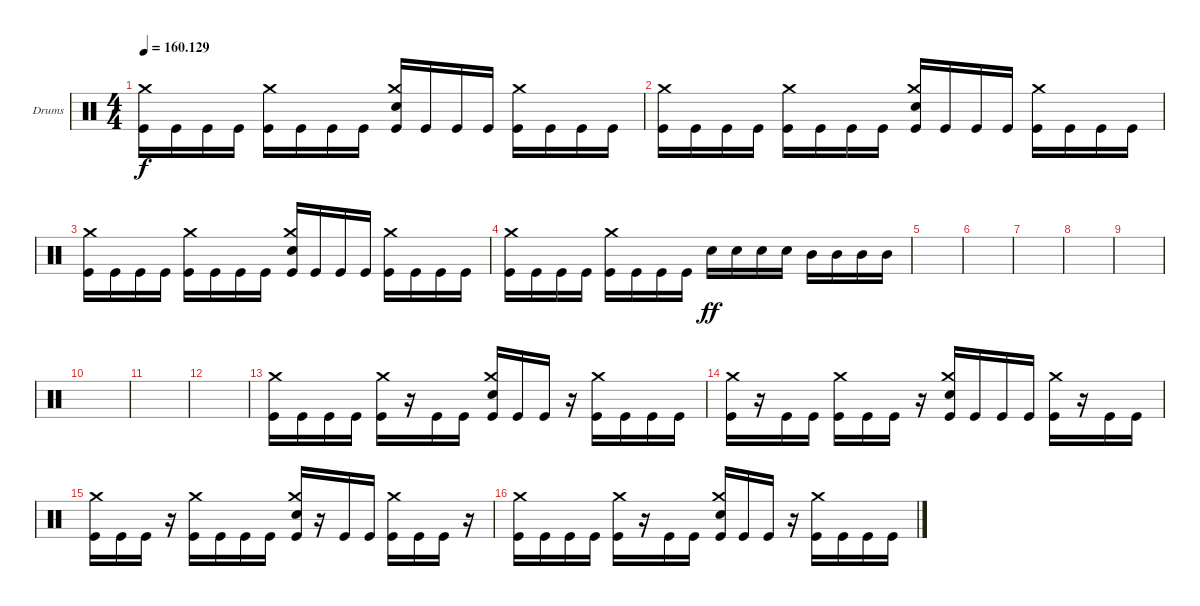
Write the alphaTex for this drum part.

\bracketExtendMode groupsimilarinstruments
\firstSystemTrackNameOrientation horizontal
\otherSystemsTrackNameOrientation horizontal
\track ("Drumkit" "Drums") {instrument percussion}
\staff {score}
\articulation defaults
\ts (4 4)
\tempo
160.129
\accidentals auto
\clef neutral
\ottava regular
\simile none
\ks c
("Kick (hit)" "Crash medium (hit)").16{dy f} "Kick (hit)".16 "Kick (hit)".16 "Kick (hit)".16 ("Kick (hit)" "Crash medium (hit)").16 "Kick (hit)".16 "Kick (hit)".16 "Kick (hit)".16 ("Kick (hit)" "Crash medium (hit)" "Snare (hit) 2").16 "Kick (hit)".16 "Kick (hit)".16 "Kick (hit)".16 ("Kick (hit)" "Crash medium (hit)").16 "Kick (hit)".16 "Kick (hit)".16 "Kick (hit)".16 |
("Kick (hit)" "Crash medium (hit)").16 "Kick (hit)".16 "Kick (hit)".16 "Kick (hit)".16 ("Kick (hit)" "Crash medium (hit)").16 "Kick (hit)".16 "Kick (hit)".16 "Kick (hit)".16 ("Kick (hit)" "Crash medium (hit)" "Snare (hit) 2").16 "Kick (hit)".16 "Kick (hit)".16 "Kick (hit)".16 ("Kick (hit)" "Crash medium (hit)").16 "Kick (hit)".16 "Kick (hit)".16 "Kick (hit)".16 |
("Kick (hit)" "Crash medium (hit)").16 "Kick (hit)".16 "Kick (hit)".16 "Kick (hit)".16 ("Kick (hit)" "Crash medium (hit)").16 "Kick (hit)".16 "Kick (hit)".16 "Kick (hit)".16 ("Kick (hit)" "Crash medium (hit)" "Snare (hit) 2").16 "Kick (hit)".16 "Kick (hit)".16 "Kick (hit)".16 ("Kick (hit)" "Crash medium (hit)").16 "Kick (hit)".16 "Kick (hit)".16 "Kick (hit)".16 |
("Kick (hit)" "Crash medium (hit)").16 "Kick (hit)".16 "Kick (hit)".16 "Kick (hit)".16 ("Kick (hit)" "Crash medium (hit)").16 "Kick (hit)".16 "Kick (hit)".16 "Kick (hit)".16 "Snare (hit) 2".16{dy ff} "Snare (hit) 2".16 "Snare (hit) 2".16 "Snare (hit) 2".16 "Mid Tom (hit)".16 "Mid Tom (hit)".16 "Mid Tom (hit)".16 "Mid Tom (hit)".16 |
|
|
|
|
|
|
|
|
("Kick (hit)" "Crash medium (hit)").16 "Kick (hit)".16 "Kick (hit)".16 "Kick (hit)".16 ("Kick (hit)" "Crash medium (hit)").16 r.16 "Kick (hit)".16 "Kick (hit)".16 ("Kick (hit)" "Crash medium (hit)" "Snare (hit) 2").16 "Kick (hit)".16 "Kick (hit)".16 r.16 ("Kick (hit)" "Crash medium (hit)").16 "Kick (hit)".16 "Kick (hit)".16 "Kick (hit)".16 |
("Kick (hit)" "Crash medium (hit)").16 r.16 "Kick (hit)".16 "Kick (hit)".16 ("Kick (hit)" "Crash medium (hit)").16 "Kick (hit)".16 "Kick (hit)".16 r.16 ("Kick (hit)" "Crash medium (hit)" "Snare (hit) 2").16 "Kick (hit)".16 "Kick (hit)".16 "Kick (hit)".16 ("Kick (hit)" "Crash medium (hit)").16 r.16 "Kick (hit)".16 "Kick (hit)".16 |
("Kick (hit)" "Crash medium (hit)").16 "Kick (hit)".16 "Kick (hit)".16 r.16 ("Kick (hit)" "Crash medium (hit)").16 "Kick (hit)".16 "Kick (hit)".16 "Kick (hit)".16 ("Kick (hit)" "Crash medium (hit)" "Snare (hit) 2").16 r.16 "Kick (hit)".16 "Kick (hit)".16 ("Kick (hit)" "Crash medium (hit)").16 "Kick (hit)".16 "Kick (hit)".16 r.16 |
("Kick (hit)" "Crash medium (hit)").16 "Kick (hit)".16 "Kick (hit)".16 "Kick (hit)".16 ("Kick (hit)" "Crash medium (hit)").16 r.16 "Kick (hit)".16 "Kick (hit)".16 ("Kick (hit)" "Crash medium (hit)" "Snare (hit) 2").16 "Kick (hit)".16 "Kick (hit)".16 r.16 ("Kick (hit)" "Crash medium (hit)").16 "Kick (hit)".16 "Kick (hit)".16 "Kick (hit)".16
